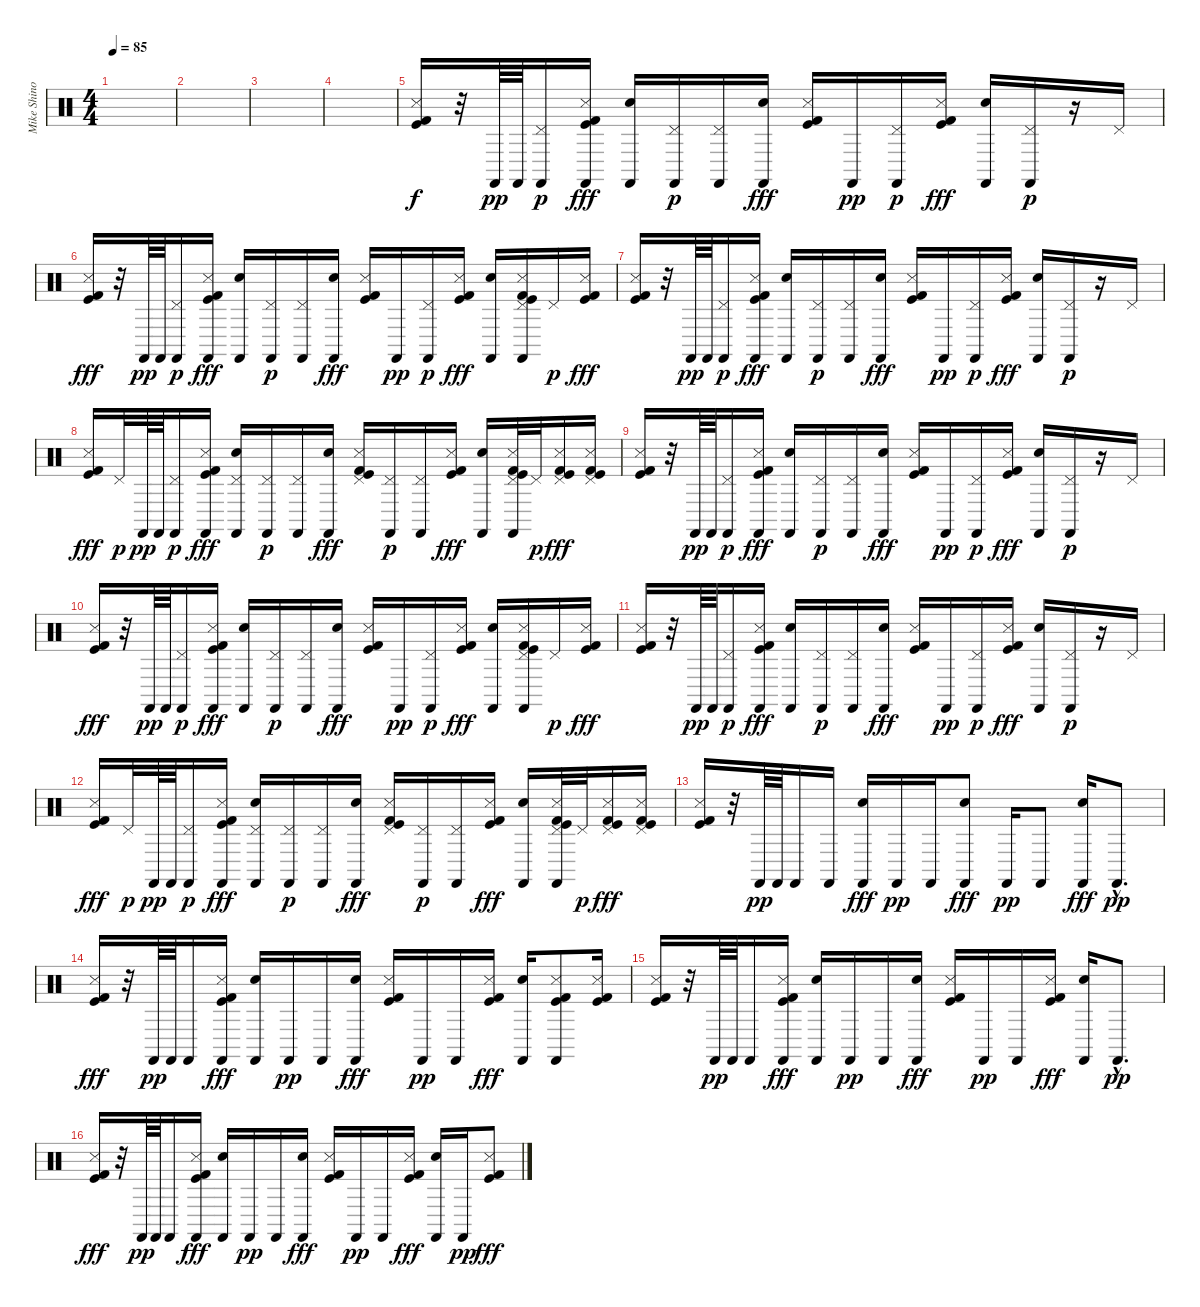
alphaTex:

\track ("Mike Shinoda - Percussion" "Mike Shino") {instrument percussion}
\staff {score}
\articulation defaults
\ts (4 4)
\tempo 85
\clef neutral
\ks c
|
|
|
|
("Snare (side stick) 3" "Kick (hit)" "Kick (hit) 2").16 r.32 "Castanets (hit)".64{dy pp} "Castanets (hit)".64 ("Castanets (hit)" "Pedal Hi-Hat (hit)").16{dy p} ("Castanets (hit)" "Snare (side stick) 3" "Kick (hit)" "Kick (hit) 2").16{dy fff} ("Castanets (hit)" "Hand Clap (hit)").16 ("Castanets (hit)" "Pedal Hi-Hat (hit)").16{dy p} ("Castanets (hit)" "Pedal Hi-Hat (hit)").16 ("Castanets (hit)" "Hand Clap (hit)").16{dy fff} ("Snare (side stick) 3" "Kick (hit)" "Kick (hit) 2").16 "Castanets (hit)".16{dy pp} ("Castanets (hit)" "Pedal Hi-Hat (hit)").16{dy p} ("Snare (side stick) 3" "Kick (hit)" "Kick (hit) 2").16{dy fff} ("Castanets (hit)" "Hand Clap (hit)").16 ("Castanets (hit)" "Pedal Hi-Hat (hit)").16{dy p} r.16 "Pedal Hi-Hat (hit)".16 |
("Snare (side stick) 3" "Kick (hit)" "Kick (hit) 2").16{dy fff} r.32 "Castanets (hit)".64{dy pp} "Castanets (hit)".64 ("Castanets (hit)" "Pedal Hi-Hat (hit)").16{dy p} ("Castanets (hit)" "Snare (side stick) 3" "Kick (hit)" "Kick (hit) 2").16{dy fff} ("Castanets (hit)" "Hand Clap (hit)").16 ("Castanets (hit)" "Pedal Hi-Hat (hit)").16{dy p} ("Castanets (hit)" "Pedal Hi-Hat (hit)").16 ("Castanets (hit)" "Hand Clap (hit)").16{dy fff} ("Snare (side stick) 3" "Kick (hit)" "Kick (hit) 2").16 "Castanets (hit)".16{dy pp} ("Castanets (hit)" "Pedal Hi-Hat (hit)").16{dy p} ("Snare (side stick) 3" "Kick (hit)" "Kick (hit) 2").16{dy fff} ("Castanets (hit)" "Hand Clap (hit)").16 ("Castanets (hit)" "Pedal Hi-Hat (hit)" "Snare (side stick) 3" "Kick (hit)" "Kick (hit) 2").16 "Pedal Hi-Hat (hit)".16{dy p} ("Snare (side stick) 3" "Kick (hit)" "Kick (hit) 2").16{dy fff} |
("Snare (side stick) 3" "Kick (hit)" "Kick (hit) 2").16 r.32 "Castanets (hit)".64{dy pp} "Castanets (hit)".64 ("Castanets (hit)" "Pedal Hi-Hat (hit)").16{dy p} ("Castanets (hit)" "Snare (side stick) 3" "Kick (hit)" "Kick (hit) 2").16{dy fff} ("Castanets (hit)" "Hand Clap (hit)").16 ("Castanets (hit)" "Pedal Hi-Hat (hit)").16{dy p} ("Castanets (hit)" "Pedal Hi-Hat (hit)").16 ("Castanets (hit)" "Hand Clap (hit)").16{dy fff} ("Snare (side stick) 3" "Kick (hit)" "Kick (hit) 2").16 "Castanets (hit)".16{dy pp} ("Castanets (hit)" "Pedal Hi-Hat (hit)").16{dy p} ("Snare (side stick) 3" "Kick (hit)" "Kick (hit) 2").16{dy fff} ("Castanets (hit)" "Hand Clap (hit)").16 ("Castanets (hit)" "Pedal Hi-Hat (hit)").16{dy p} r.16 "Pedal Hi-Hat (hit)".16 |
("Snare (side stick) 3" "Kick (hit)" "Kick (hit) 2").16{dy fff} "Pedal Hi-Hat (hit)".32{dy p} "Castanets (hit)".64{dy pp} "Castanets (hit)".64 ("Castanets (hit)" "Pedal Hi-Hat (hit)").16{dy p} ("Castanets (hit)" "Snare (side stick) 3" "Kick (hit)" "Kick (hit) 2").16{dy fff} ("Castanets (hit)" "Pedal Hi-Hat (hit)" "Hand Clap (hit)").16 ("Castanets (hit)" "Pedal Hi-Hat (hit)").16{dy p} ("Castanets (hit)" "Pedal Hi-Hat (hit)").16 ("Castanets (hit)" "Hand Clap (hit)").16{dy fff} ("Pedal Hi-Hat (hit)" "Snare (side stick) 3" "Kick (hit)" "Kick (hit) 2").16 ("Castanets (hit)" "Pedal Hi-Hat (hit)").16{dy p} ("Castanets (hit)" "Pedal Hi-Hat (hit)").16 ("Snare (side stick) 3" "Kick (hit)" "Kick (hit) 2").16{dy fff} ("Castanets (hit)" "Hand Clap (hit)").16 ("Castanets (hit)" "Pedal Hi-Hat (hit)" "Snare (side stick) 3" "Kick (hit)" "Kick (hit) 2").32 "Pedal Hi-Hat (hit)".32{dy p} ("Pedal Hi-Hat (hit)" "Snare (side stick) 3" "Kick (hit)" "Kick (hit) 2").16{dy fff} ("Pedal Hi-Hat (hit)" "Snare (side stick) 3" "Kick (hit)" "Kick (hit) 2").16 |
("Snare (side stick) 3" "Kick (hit)" "Kick (hit) 2").16 r.32 "Castanets (hit)".64{dy pp} "Castanets (hit)".64 ("Castanets (hit)" "Pedal Hi-Hat (hit)").16{dy p} ("Castanets (hit)" "Snare (side stick) 3" "Kick (hit)" "Kick (hit) 2").16{dy fff} ("Castanets (hit)" "Hand Clap (hit)").16 ("Castanets (hit)" "Pedal Hi-Hat (hit)").16{dy p} ("Castanets (hit)" "Pedal Hi-Hat (hit)").16 ("Castanets (hit)" "Hand Clap (hit)").16{dy fff} ("Snare (side stick) 3" "Kick (hit)" "Kick (hit) 2").16 "Castanets (hit)".16{dy pp} ("Castanets (hit)" "Pedal Hi-Hat (hit)").16{dy p} ("Snare (side stick) 3" "Kick (hit)" "Kick (hit) 2").16{dy fff} ("Castanets (hit)" "Hand Clap (hit)").16 ("Castanets (hit)" "Pedal Hi-Hat (hit)").16{dy p} r.16 "Pedal Hi-Hat (hit)".16 |
("Snare (side stick) 3" "Kick (hit)" "Kick (hit) 2").16{dy fff} r.32 "Castanets (hit)".64{dy pp} "Castanets (hit)".64 ("Castanets (hit)" "Pedal Hi-Hat (hit)").16{dy p} ("Castanets (hit)" "Snare (side stick) 3" "Kick (hit)" "Kick (hit) 2").16{dy fff} ("Castanets (hit)" "Hand Clap (hit)").16 ("Castanets (hit)" "Pedal Hi-Hat (hit)").16{dy p} ("Castanets (hit)" "Pedal Hi-Hat (hit)").16 ("Castanets (hit)" "Hand Clap (hit)").16{dy fff} ("Snare (side stick) 3" "Kick (hit)" "Kick (hit) 2").16 "Castanets (hit)".16{dy pp} ("Castanets (hit)" "Pedal Hi-Hat (hit)").16{dy p} ("Snare (side stick) 3" "Kick (hit)" "Kick (hit) 2").16{dy fff} ("Castanets (hit)" "Hand Clap (hit)").16 ("Castanets (hit)" "Pedal Hi-Hat (hit)" "Snare (side stick) 3" "Kick (hit)" "Kick (hit) 2").16 "Pedal Hi-Hat (hit)".16{dy p} ("Snare (side stick) 3" "Kick (hit)" "Kick (hit) 2").16{dy fff} |
("Snare (side stick) 3" "Kick (hit)" "Kick (hit) 2").16 r.32 "Castanets (hit)".64{dy pp} "Castanets (hit)".64 ("Castanets (hit)" "Pedal Hi-Hat (hit)").16{dy p} ("Castanets (hit)" "Snare (side stick) 3" "Kick (hit)" "Kick (hit) 2").16{dy fff} ("Castanets (hit)" "Hand Clap (hit)").16 ("Castanets (hit)" "Pedal Hi-Hat (hit)").16{dy p} ("Castanets (hit)" "Pedal Hi-Hat (hit)").16 ("Castanets (hit)" "Hand Clap (hit)").16{dy fff} ("Snare (side stick) 3" "Kick (hit)" "Kick (hit) 2").16 "Castanets (hit)".16{dy pp} ("Castanets (hit)" "Pedal Hi-Hat (hit)").16{dy p} ("Snare (side stick) 3" "Kick (hit)" "Kick (hit) 2").16{dy fff} ("Castanets (hit)" "Hand Clap (hit)").16 ("Castanets (hit)" "Pedal Hi-Hat (hit)").16{dy p} r.16 "Pedal Hi-Hat (hit)".16 |
("Snare (side stick) 3" "Kick (hit)" "Kick (hit) 2").16{dy fff} "Pedal Hi-Hat (hit)".32{dy p} "Castanets (hit)".64{dy pp} "Castanets (hit)".64 ("Castanets (hit)" "Pedal Hi-Hat (hit)").16{dy p} ("Castanets (hit)" "Snare (side stick) 3" "Kick (hit)" "Kick (hit) 2").16{dy fff} ("Castanets (hit)" "Pedal Hi-Hat (hit)" "Hand Clap (hit)").16 ("Castanets (hit)" "Pedal Hi-Hat (hit)").16{dy p} ("Castanets (hit)" "Pedal Hi-Hat (hit)").16 ("Castanets (hit)" "Hand Clap (hit)").16{dy fff} ("Pedal Hi-Hat (hit)" "Snare (side stick) 3" "Kick (hit)" "Kick (hit) 2").16 ("Castanets (hit)" "Pedal Hi-Hat (hit)").16{dy p} ("Castanets (hit)" "Pedal Hi-Hat (hit)").16 ("Snare (side stick) 3" "Kick (hit)" "Kick (hit) 2").16{dy fff} ("Castanets (hit)" "Hand Clap (hit)").16 ("Castanets (hit)" "Pedal Hi-Hat (hit)" "Snare (side stick) 3" "Kick (hit)" "Kick (hit) 2").32 "Pedal Hi-Hat (hit)".32{dy p} ("Pedal Hi-Hat (hit)" "Snare (side stick) 3" "Kick (hit)" "Kick (hit) 2").16{dy fff} ("Pedal Hi-Hat (hit)" "Snare (side stick) 3" "Kick (hit)" "Kick (hit) 2").16 |
("Snare (side stick) 3" "Kick (hit)" "Kick (hit) 2").16 r.32 "Castanets (hit)".64{dy pp} "Castanets (hit)".64 "Castanets (hit)".16 "Castanets (hit)".16 ("Castanets (hit)" "Hand Clap (hit)").16{dy fff} "Castanets (hit)".16{dy pp} "Castanets (hit)".16 ("Castanets (hit)" "Hand Clap (hit)").8{dy fff} "Castanets (hit)".16{dy pp} "Castanets (hit)".8 ("Castanets (hit)" "Hand Clap (hit)").16{dy fff} "Castanets (hit)"{hac}.8{d dy pp} |
("Snare (side stick) 3" "Kick (hit)" "Kick (hit) 2").16{dy fff} r.32 "Castanets (hit)".64{dy pp} "Castanets (hit)".64 "Castanets (hit)".16 ("Castanets (hit)" "Snare (side stick) 3" "Kick (hit)" "Kick (hit) 2").16{dy fff} ("Castanets (hit)" "Hand Clap (hit)").16 "Castanets (hit)".16{dy pp} "Castanets (hit)".16 ("Castanets (hit)" "Hand Clap (hit)").16{dy fff} ("Snare (side stick) 3" "Kick (hit)" "Kick (hit) 2").16 "Castanets (hit)".16{dy pp} "Castanets (hit)".16 ("Snare (side stick) 3" "Kick (hit)" "Kick (hit) 2").16{dy fff} ("Castanets (hit)" "Hand Clap (hit)").16 ("Castanets (hit)" "Snare (side stick) 3" "Kick (hit)" "Kick (hit) 2").8 ("Snare (side stick) 3" "Kick (hit)" "Kick (hit) 2").16 |
("Snare (side stick) 3" "Kick (hit)" "Kick (hit) 2").16 r.32 "Castanets (hit)".64{dy pp} "Castanets (hit)".64 "Castanets (hit)".16 ("Castanets (hit)" "Snare (side stick) 3" "Kick (hit)" "Kick (hit) 2").16{dy fff} ("Castanets (hit)" "Hand Clap (hit)").16 "Castanets (hit)".16{dy pp} "Castanets (hit)".16 ("Castanets (hit)" "Hand Clap (hit)").16{dy fff} ("Snare (side stick) 3" "Kick (hit)" "Kick (hit) 2").16 "Castanets (hit)".16{dy pp} "Castanets (hit)".16 ("Snare (side stick) 3" "Kick (hit)" "Kick (hit) 2").16{dy fff} ("Castanets (hit)" "Hand Clap (hit)").16 "Castanets (hit)"{hac}.8{d dy pp} |
("Snare (side stick) 3" "Kick (hit)" "Kick (hit) 2").16{dy fff} r.32 "Castanets (hit)".64{dy pp} "Castanets (hit)".64 "Castanets (hit)".16 ("Castanets (hit)" "Snare (side stick) 3" "Kick (hit)" "Kick (hit) 2").16{dy fff} ("Castanets (hit)" "Hand Clap (hit)").16 "Castanets (hit)".16{dy pp} "Castanets (hit)".16 ("Castanets (hit)" "Hand Clap (hit)").16{dy fff} ("Snare (side stick) 3" "Kick (hit)" "Kick (hit) 2").16 "Castanets (hit)".16{dy pp} "Castanets (hit)".16 ("Snare (side stick) 3" "Kick (hit)" "Kick (hit) 2").16{dy fff} ("Castanets (hit)" "Hand Clap (hit)").16 "Castanets (hit)".16{dy pp} ("Snare (side stick) 3" "Kick (hit)" "Kick (hit) 2").8{dy fff}
